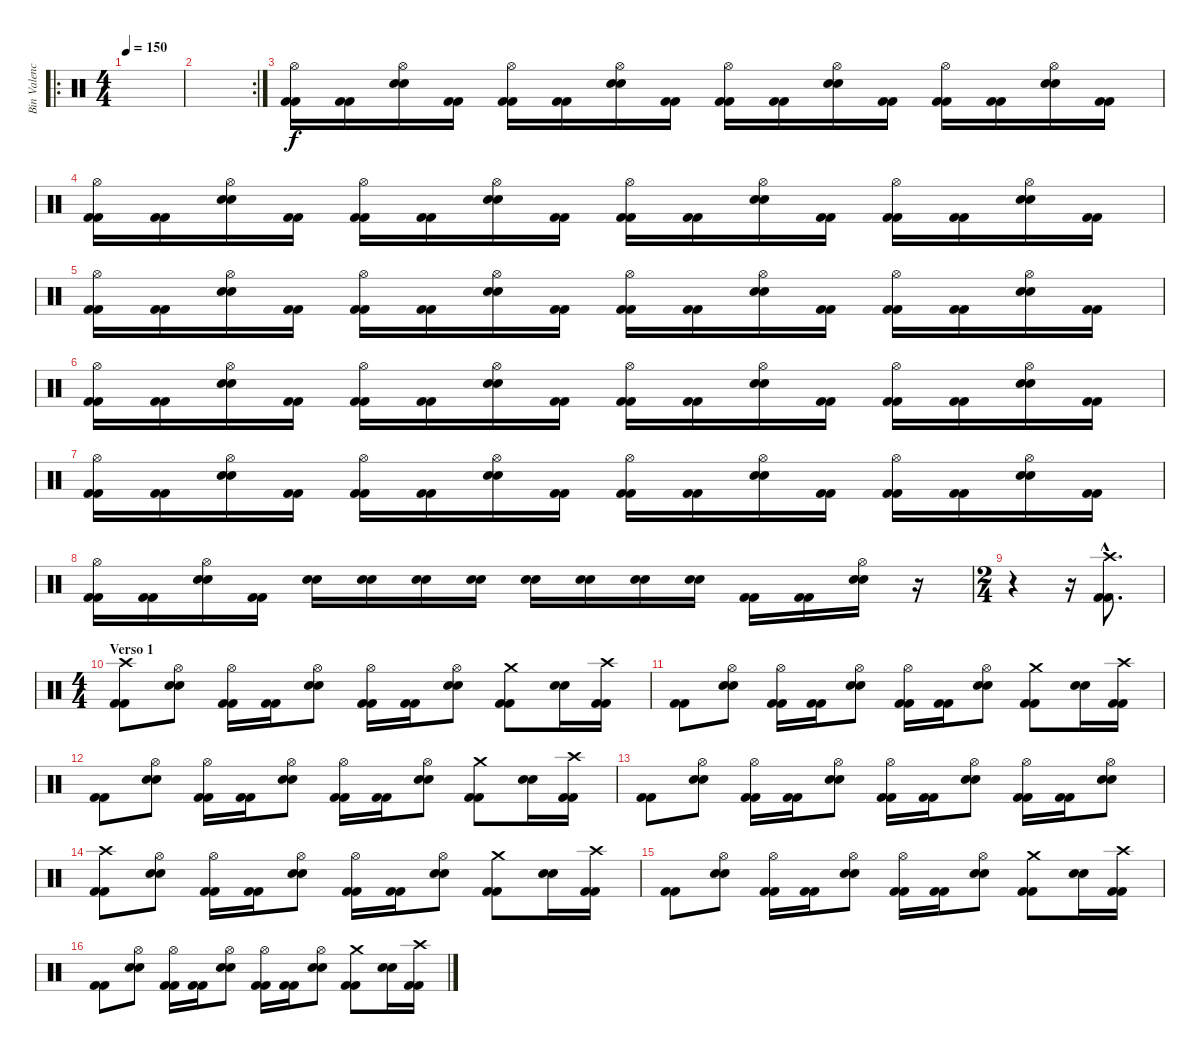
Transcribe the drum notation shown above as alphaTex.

\track ("Bin Valencia (bateria)" "Bin Valenc") {instrument percussion}
\staff {score}
\articulation defaults
\ro
\ts (4 4)
\tempo 150
\clef neutral
\ks c
|
\rc 2
|
("Hi-Hat (open)" "Kick (hit) 2" "Kick (hit) 2").16 ("Kick (hit) 2" "Kick (hit) 2").16 ("Hi-Hat (open)" "Snare (hit) 2" "Snare (hit) 2").16 ("Kick (hit) 2" "Kick (hit) 2").16 ("Hi-Hat (open)" "Kick (hit) 2" "Kick (hit) 2").16 ("Kick (hit) 2" "Kick (hit) 2").16 ("Hi-Hat (open)" "Snare (hit) 2" "Snare (hit) 2").16 ("Kick (hit) 2" "Kick (hit) 2").16 ("Hi-Hat (open)" "Kick (hit) 2" "Kick (hit) 2").16 ("Kick (hit) 2" "Kick (hit) 2").16 ("Hi-Hat (open)" "Snare (hit) 2" "Snare (hit) 2").16 ("Kick (hit) 2" "Kick (hit) 2").16 ("Hi-Hat (open)" "Kick (hit) 2" "Kick (hit) 2").16 ("Kick (hit) 2" "Kick (hit) 2").16 ("Hi-Hat (open)" "Snare (hit) 2" "Snare (hit) 2").16 ("Kick (hit) 2" "Kick (hit) 2").16 |
("Hi-Hat (open)" "Kick (hit) 2" "Kick (hit) 2").16 ("Kick (hit) 2" "Kick (hit) 2").16 ("Hi-Hat (open)" "Snare (hit) 2" "Snare (hit) 2").16 ("Kick (hit) 2" "Kick (hit) 2").16 ("Hi-Hat (open)" "Kick (hit) 2" "Kick (hit) 2").16 ("Kick (hit) 2" "Kick (hit) 2").16 ("Hi-Hat (open)" "Snare (hit) 2" "Snare (hit) 2").16 ("Kick (hit) 2" "Kick (hit) 2").16 ("Hi-Hat (open)" "Kick (hit) 2" "Kick (hit) 2").16 ("Kick (hit) 2" "Kick (hit) 2").16 ("Hi-Hat (open)" "Snare (hit) 2" "Snare (hit) 2").16 ("Kick (hit) 2" "Kick (hit) 2").16 ("Hi-Hat (open)" "Kick (hit) 2" "Kick (hit) 2").16 ("Kick (hit) 2" "Kick (hit) 2").16 ("Hi-Hat (open)" "Snare (hit) 2" "Snare (hit) 2").16 ("Kick (hit) 2" "Kick (hit) 2").16 |
("Hi-Hat (open)" "Kick (hit) 2" "Kick (hit) 2").16 ("Kick (hit) 2" "Kick (hit) 2").16 ("Hi-Hat (open)" "Snare (hit) 2" "Snare (hit) 2").16 ("Kick (hit) 2" "Kick (hit) 2").16 ("Hi-Hat (open)" "Kick (hit) 2" "Kick (hit) 2").16 ("Kick (hit) 2" "Kick (hit) 2").16 ("Hi-Hat (open)" "Snare (hit) 2" "Snare (hit) 2").16 ("Kick (hit) 2" "Kick (hit) 2").16 ("Hi-Hat (open)" "Kick (hit) 2" "Kick (hit) 2").16 ("Kick (hit) 2" "Kick (hit) 2").16 ("Hi-Hat (open)" "Snare (hit) 2" "Snare (hit) 2").16 ("Kick (hit) 2" "Kick (hit) 2").16 ("Hi-Hat (open)" "Kick (hit) 2" "Kick (hit) 2").16 ("Kick (hit) 2" "Kick (hit) 2").16 ("Hi-Hat (open)" "Snare (hit) 2" "Snare (hit) 2").16 ("Kick (hit) 2" "Kick (hit) 2").16 |
("Hi-Hat (open)" "Kick (hit) 2" "Kick (hit) 2").16 ("Kick (hit) 2" "Kick (hit) 2").16 ("Hi-Hat (open)" "Snare (hit) 2" "Snare (hit) 2").16 ("Kick (hit) 2" "Kick (hit) 2").16 ("Hi-Hat (open)" "Kick (hit) 2" "Kick (hit) 2").16 ("Kick (hit) 2" "Kick (hit) 2").16 ("Hi-Hat (open)" "Snare (hit) 2" "Snare (hit) 2").16 ("Kick (hit) 2" "Kick (hit) 2").16 ("Hi-Hat (open)" "Kick (hit) 2" "Kick (hit) 2").16 ("Kick (hit) 2" "Kick (hit) 2").16 ("Hi-Hat (open)" "Snare (hit) 2" "Snare (hit) 2").16 ("Kick (hit) 2" "Kick (hit) 2").16 ("Hi-Hat (open)" "Kick (hit) 2" "Kick (hit) 2").16 ("Kick (hit) 2" "Kick (hit) 2").16 ("Hi-Hat (open)" "Snare (hit) 2" "Snare (hit) 2").16 ("Kick (hit) 2" "Kick (hit) 2").16 |
("Hi-Hat (open)" "Kick (hit) 2" "Kick (hit) 2").16 ("Kick (hit) 2" "Kick (hit) 2").16 ("Hi-Hat (open)" "Snare (hit) 2" "Snare (hit) 2").16 ("Kick (hit) 2" "Kick (hit) 2").16 ("Hi-Hat (open)" "Kick (hit) 2" "Kick (hit) 2").16 ("Kick (hit) 2" "Kick (hit) 2").16 ("Hi-Hat (open)" "Snare (hit) 2" "Snare (hit) 2").16 ("Kick (hit) 2" "Kick (hit) 2").16 ("Hi-Hat (open)" "Kick (hit) 2" "Kick (hit) 2").16 ("Kick (hit) 2" "Kick (hit) 2").16 ("Hi-Hat (open)" "Snare (hit) 2" "Snare (hit) 2").16 ("Kick (hit) 2" "Kick (hit) 2").16 ("Hi-Hat (open)" "Kick (hit) 2" "Kick (hit) 2").16 ("Kick (hit) 2" "Kick (hit) 2").16 ("Hi-Hat (open)" "Snare (hit) 2" "Snare (hit) 2").16 ("Kick (hit) 2" "Kick (hit) 2").16 |
("Hi-Hat (open)" "Kick (hit) 2" "Kick (hit) 2").16 ("Kick (hit) 2" "Kick (hit) 2").16 ("Hi-Hat (open)" "Snare (hit) 2" "Snare (hit) 2").16 ("Kick (hit) 2" "Kick (hit) 2").16 ("Snare (hit) 2" "Snare (hit) 2").16 ("Snare (hit) 2" "Snare (hit) 2").16 ("Snare (hit) 2" "Snare (hit) 2").16 ("Snare (hit) 2" "Snare (hit) 2").16 ("Snare (hit) 2" "Snare (hit) 2").16 ("Snare (hit) 2" "Snare (hit) 2").16 ("Snare (hit) 2" "Snare (hit) 2").16 ("Snare (hit) 2" "Snare (hit) 2").16 ("Kick (hit) 2" "Kick (hit) 2").16 ("Kick (hit) 2" "Kick (hit) 2").16 ("Hi-Hat (open)" "Snare (hit) 2" "Snare (hit) 2").16 r.16 |
\ts (2 4)
r.4 r.16 ("Crash high (hit)"{hac} "Kick (hit) 2"{hac} "Kick (hit) 2"{hac}).8{d} |
\ts (4 4)
\section ("" "Verso 1")
("Crash high (hit)" "Kick (hit) 2" "Kick (hit) 2").8 ("Hi-Hat (open)" "Snare (hit) 2" "Snare (hit) 2").8 ("Hi-Hat (open)" "Kick (hit) 2" "Kick (hit) 2").16 ("Kick (hit) 2" "Kick (hit) 2").16 ("Hi-Hat (open)" "Snare (hit) 2" "Snare (hit) 2").8 ("Hi-Hat (open)" "Kick (hit) 2" "Kick (hit) 2").16 ("Kick (hit) 2" "Kick (hit) 2").16 ("Hi-Hat (open)" "Snare (hit) 2" "Snare (hit) 2").8 ("Crash medium (hit)" "Kick (hit) 2" "Kick (hit) 2").8 ("Snare (hit) 2" "Snare (hit) 2").16 ("Crash high (hit)" "Kick (hit) 2" "Kick (hit) 2").16 |
("Kick (hit) 2" "Kick (hit) 2").8 ("Hi-Hat (open)" "Snare (hit) 2" "Snare (hit) 2").8 ("Hi-Hat (open)" "Kick (hit) 2" "Kick (hit) 2").16 ("Kick (hit) 2" "Kick (hit) 2").16 ("Hi-Hat (open)" "Snare (hit) 2" "Snare (hit) 2").8 ("Hi-Hat (open)" "Kick (hit) 2" "Kick (hit) 2").16 ("Kick (hit) 2" "Kick (hit) 2").16 ("Hi-Hat (open)" "Snare (hit) 2" "Snare (hit) 2").8 ("Crash medium (hit)" "Kick (hit) 2" "Kick (hit) 2").8 ("Snare (hit) 2" "Snare (hit) 2").16 ("Crash high (hit)" "Kick (hit) 2" "Kick (hit) 2").16 |
("Kick (hit) 2" "Kick (hit) 2").8 ("Hi-Hat (open)" "Snare (hit) 2" "Snare (hit) 2").8 ("Hi-Hat (open)" "Kick (hit) 2" "Kick (hit) 2").16 ("Kick (hit) 2" "Kick (hit) 2").16 ("Hi-Hat (open)" "Snare (hit) 2" "Snare (hit) 2").8 ("Hi-Hat (open)" "Kick (hit) 2" "Kick (hit) 2").16 ("Kick (hit) 2" "Kick (hit) 2").16 ("Hi-Hat (open)" "Snare (hit) 2" "Snare (hit) 2").8 ("Crash medium (hit)" "Kick (hit) 2" "Kick (hit) 2").8 ("Snare (hit) 2" "Snare (hit) 2").16 ("Crash high (hit)" "Kick (hit) 2" "Kick (hit) 2").16 |
("Kick (hit) 2" "Kick (hit) 2").8 ("Hi-Hat (open)" "Snare (hit) 2" "Snare (hit) 2").8 ("Hi-Hat (open)" "Kick (hit) 2" "Kick (hit) 2").16 ("Kick (hit) 2" "Kick (hit) 2").16 ("Hi-Hat (open)" "Snare (hit) 2" "Snare (hit) 2").8 ("Hi-Hat (open)" "Kick (hit) 2" "Kick (hit) 2").16 ("Kick (hit) 2" "Kick (hit) 2").16 ("Hi-Hat (open)" "Snare (hit) 2" "Snare (hit) 2").8 ("Hi-Hat (open)" "Kick (hit) 2" "Kick (hit) 2").16 ("Kick (hit) 2" "Kick (hit) 2").16 ("Hi-Hat (open)" "Snare (hit) 2" "Snare (hit) 2").8 |
("Crash high (hit)" "Kick (hit) 2" "Kick (hit) 2").8 ("Hi-Hat (open)" "Snare (hit) 2" "Snare (hit) 2").8 ("Hi-Hat (open)" "Kick (hit) 2" "Kick (hit) 2").16 ("Kick (hit) 2" "Kick (hit) 2").16 ("Hi-Hat (open)" "Snare (hit) 2" "Snare (hit) 2").8 ("Hi-Hat (open)" "Kick (hit) 2" "Kick (hit) 2").16 ("Kick (hit) 2" "Kick (hit) 2").16 ("Hi-Hat (open)" "Snare (hit) 2" "Snare (hit) 2").8 ("Crash medium (hit)" "Kick (hit) 2" "Kick (hit) 2").8 ("Snare (hit) 2" "Snare (hit) 2").16 ("Crash high (hit)" "Kick (hit) 2" "Kick (hit) 2").16 |
("Kick (hit) 2" "Kick (hit) 2").8 ("Hi-Hat (open)" "Snare (hit) 2" "Snare (hit) 2").8 ("Hi-Hat (open)" "Kick (hit) 2" "Kick (hit) 2").16 ("Kick (hit) 2" "Kick (hit) 2").16 ("Hi-Hat (open)" "Snare (hit) 2" "Snare (hit) 2").8 ("Hi-Hat (open)" "Kick (hit) 2" "Kick (hit) 2").16 ("Kick (hit) 2" "Kick (hit) 2").16 ("Hi-Hat (open)" "Snare (hit) 2" "Snare (hit) 2").8 ("Crash medium (hit)" "Kick (hit) 2" "Kick (hit) 2").8 ("Snare (hit) 2" "Snare (hit) 2").16 ("Crash high (hit)" "Kick (hit) 2" "Kick (hit) 2").16 |
("Kick (hit) 2" "Kick (hit) 2").8 ("Hi-Hat (open)" "Snare (hit) 2" "Snare (hit) 2").8 ("Hi-Hat (open)" "Kick (hit) 2" "Kick (hit) 2").16 ("Kick (hit) 2" "Kick (hit) 2").16 ("Hi-Hat (open)" "Snare (hit) 2" "Snare (hit) 2").8 ("Hi-Hat (open)" "Kick (hit) 2" "Kick (hit) 2").16 ("Kick (hit) 2" "Kick (hit) 2").16 ("Hi-Hat (open)" "Snare (hit) 2" "Snare (hit) 2").8 ("Crash medium (hit)" "Kick (hit) 2" "Kick (hit) 2").8 ("Snare (hit) 2" "Snare (hit) 2").16 ("Crash high (hit)" "Kick (hit) 2" "Kick (hit) 2").16
